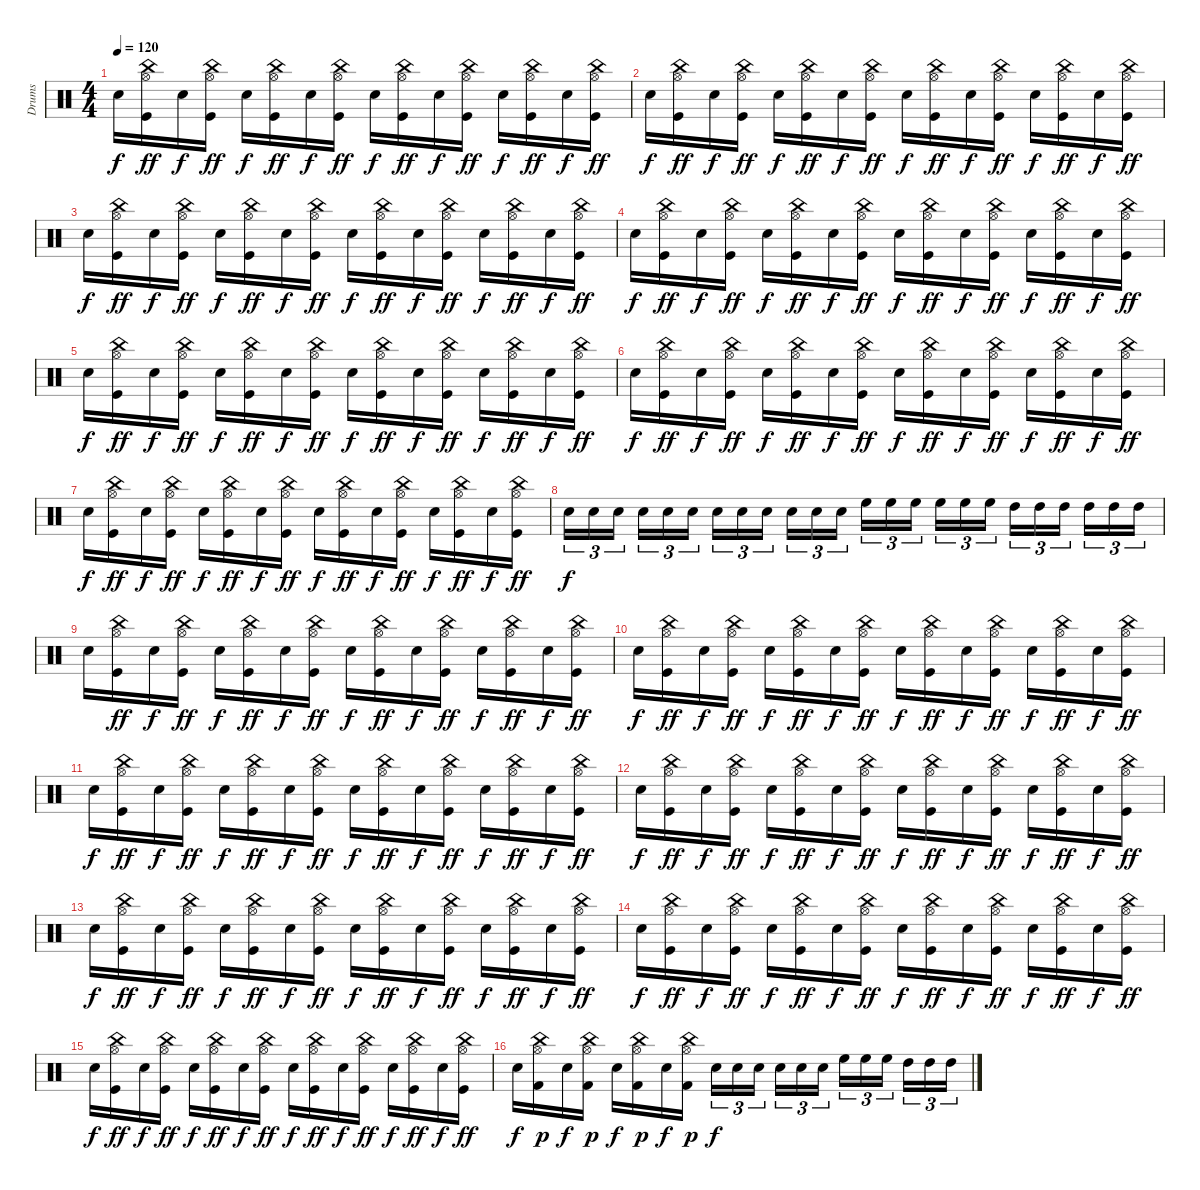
\track ("Drums" "Drums") {instrument percussion}
\staff {score}
\articulation defaults
\ts (4 4)
\tempo 120
\clef neutral
\ks c "Electric Snare (hit)".16{dy f}
("China (hit)" "Hi-Hat (open)" "Kick (hit)").16{dy ff} "Electric Snare (hit)".16{dy f} ("China (hit)" "Hi-Hat (open)" "Kick (hit)").16{dy ff} "Electric Snare (hit)".16{dy f} ("China (hit)" "Hi-Hat (open)" "Kick (hit)").16{dy ff} "Electric Snare (hit)".16{dy f} ("China (hit)" "Hi-Hat (open)" "Kick (hit)").16{dy ff} "Electric Snare (hit)".16{dy f} ("China (hit)" "Hi-Hat (open)" "Kick (hit)").16{dy ff} "Electric Snare (hit)".16{dy f} ("China (hit)" "Hi-Hat (open)" "Kick (hit)").16{dy ff} "Electric Snare (hit)".16{dy f} ("China (hit)" "Hi-Hat (open)" "Kick (hit)").16{dy ff} "Electric Snare (hit)".16{dy f} ("China (hit)" "Hi-Hat (open)" "Kick (hit)").16{dy ff} |
"Electric Snare (hit)".16{dy f} ("China (hit)" "Hi-Hat (open)" "Kick (hit)").16{dy ff} "Electric Snare (hit)".16{dy f} ("China (hit)" "Hi-Hat (open)" "Kick (hit)").16{dy ff} "Electric Snare (hit)".16{dy f} ("China (hit)" "Hi-Hat (open)" "Kick (hit)").16{dy ff} "Electric Snare (hit)".16{dy f} ("China (hit)" "Hi-Hat (open)" "Kick (hit)").16{dy ff} "Electric Snare (hit)".16{dy f} ("China (hit)" "Hi-Hat (open)" "Kick (hit)").16{dy ff} "Electric Snare (hit)".16{dy f} ("China (hit)" "Hi-Hat (open)" "Kick (hit)").16{dy ff} "Electric Snare (hit)".16{dy f} ("China (hit)" "Hi-Hat (open)" "Kick (hit)").16{dy ff} "Electric Snare (hit)".16{dy f} ("China (hit)" "Hi-Hat (open)" "Kick (hit)").16{dy ff} |
"Electric Snare (hit)".16{dy f} ("China (hit)" "Hi-Hat (open)" "Kick (hit)").16{dy ff} "Electric Snare (hit)".16{dy f} ("China (hit)" "Hi-Hat (open)" "Kick (hit)").16{dy ff} "Electric Snare (hit)".16{dy f} ("China (hit)" "Hi-Hat (open)" "Kick (hit)").16{dy ff} "Electric Snare (hit)".16{dy f} ("China (hit)" "Hi-Hat (open)" "Kick (hit)").16{dy ff} "Electric Snare (hit)".16{dy f} ("China (hit)" "Hi-Hat (open)" "Kick (hit)").16{dy ff} "Electric Snare (hit)".16{dy f} ("China (hit)" "Hi-Hat (open)" "Kick (hit)").16{dy ff} "Electric Snare (hit)".16{dy f} ("China (hit)" "Hi-Hat (open)" "Kick (hit)").16{dy ff} "Electric Snare (hit)".16{dy f} ("China (hit)" "Hi-Hat (open)" "Kick (hit)").16{dy ff} |
"Electric Snare (hit)".16{dy f} ("China (hit)" "Hi-Hat (open)" "Kick (hit)").16{dy ff} "Electric Snare (hit)".16{dy f} ("China (hit)" "Hi-Hat (open)" "Kick (hit)").16{dy ff} "Electric Snare (hit)".16{dy f} ("China (hit)" "Hi-Hat (open)" "Kick (hit)").16{dy ff} "Electric Snare (hit)".16{dy f} ("China (hit)" "Hi-Hat (open)" "Kick (hit)").16{dy ff} "Electric Snare (hit)".16{dy f} ("China (hit)" "Hi-Hat (open)" "Kick (hit)").16{dy ff} "Electric Snare (hit)".16{dy f} ("China (hit)" "Hi-Hat (open)" "Kick (hit)").16{dy ff} "Electric Snare (hit)".16{dy f} ("China (hit)" "Hi-Hat (open)" "Kick (hit)").16{dy ff} "Electric Snare (hit)".16{dy f} ("China (hit)" "Hi-Hat (open)" "Kick (hit)").16{dy ff} |
"Electric Snare (hit)".16{dy f} ("China (hit)" "Hi-Hat (open)" "Kick (hit)").16{dy ff} "Electric Snare (hit)".16{dy f} ("China (hit)" "Hi-Hat (open)" "Kick (hit)").16{dy ff} "Electric Snare (hit)".16{dy f} ("China (hit)" "Hi-Hat (open)" "Kick (hit)").16{dy ff} "Electric Snare (hit)".16{dy f} ("China (hit)" "Hi-Hat (open)" "Kick (hit)").16{dy ff} "Electric Snare (hit)".16{dy f} ("China (hit)" "Hi-Hat (open)" "Kick (hit)").16{dy ff} "Electric Snare (hit)".16{dy f} ("China (hit)" "Hi-Hat (open)" "Kick (hit)").16{dy ff} "Electric Snare (hit)".16{dy f} ("China (hit)" "Hi-Hat (open)" "Kick (hit)").16{dy ff} "Electric Snare (hit)".16{dy f} ("China (hit)" "Hi-Hat (open)" "Kick (hit)").16{dy ff} |
"Electric Snare (hit)".16{dy f} ("China (hit)" "Hi-Hat (open)" "Kick (hit)").16{dy ff} "Electric Snare (hit)".16{dy f} ("China (hit)" "Hi-Hat (open)" "Kick (hit)").16{dy ff} "Electric Snare (hit)".16{dy f} ("China (hit)" "Hi-Hat (open)" "Kick (hit)").16{dy ff} "Electric Snare (hit)".16{dy f} ("China (hit)" "Hi-Hat (open)" "Kick (hit)").16{dy ff} "Electric Snare (hit)".16{dy f} ("China (hit)" "Hi-Hat (open)" "Kick (hit)").16{dy ff} "Electric Snare (hit)".16{dy f} ("China (hit)" "Hi-Hat (open)" "Kick (hit)").16{dy ff} "Electric Snare (hit)".16{dy f} ("China (hit)" "Hi-Hat (open)" "Kick (hit)").16{dy ff} "Electric Snare (hit)".16{dy f} ("China (hit)" "Hi-Hat (open)" "Kick (hit)").16{dy ff} |
"Electric Snare (hit)".16{dy f} ("China (hit)" "Hi-Hat (open)" "Kick (hit)").16{dy ff} "Electric Snare (hit)".16{dy f} ("China (hit)" "Hi-Hat (open)" "Kick (hit)").16{dy ff} "Electric Snare (hit)".16{dy f} ("China (hit)" "Hi-Hat (open)" "Kick (hit)").16{dy ff} "Electric Snare (hit)".16{dy f} ("China (hit)" "Hi-Hat (open)" "Kick (hit)").16{dy ff} "Electric Snare (hit)".16{dy f} ("China (hit)" "Hi-Hat (open)" "Kick (hit)").16{dy ff} "Electric Snare (hit)".16{dy f} ("China (hit)" "Hi-Hat (open)" "Kick (hit)").16{dy ff} "Electric Snare (hit)".16{dy f} ("China (hit)" "Hi-Hat (open)" "Kick (hit)").16{dy ff} "Electric Snare (hit)".16{dy f} ("China (hit)" "Hi-Hat (open)" "Kick (hit)").16{dy ff} |
"Electric Snare (hit)".16{tu (3 2) dy f} "Electric Snare (hit)".16{tu (3 2)} "Electric Snare (hit)".16{tu (3 2)} "Electric Snare (hit)".16{tu (3 2)} "Electric Snare (hit)".16{tu (3 2)} "Electric Snare (hit)".16{tu (3 2)} "Electric Snare (hit)".16{tu (3 2)} "Electric Snare (hit)".16{tu (3 2)} "Electric Snare (hit)".16{tu (3 2)} "Electric Snare (hit)".16{tu (3 2)} "Electric Snare (hit)".16{tu (3 2)} "Electric Snare (hit)".16{tu (3 2)} "High Floor Tom (hit)".16{tu (3 2)} "High Floor Tom (hit)".16{tu (3 2)} "High Floor Tom (hit)".16{tu (3 2)} "High Floor Tom (hit)".16{tu (3 2)} "High Floor Tom (hit)".16{tu (3 2)} "High Floor Tom (hit)".16{tu (3 2)} "High Tom (hit)".16{tu (3 2)} "High Tom (hit)".16{tu (3 2)} "High Tom (hit)".16{tu (3 2)} "High Tom (hit)".16{tu (3 2)} "High Tom (hit)".16{tu (3 2)} "High Tom (hit)".16{tu (3 2)} |
"Electric Snare (hit)".16 ("China (hit)" "Hi-Hat (open)" "Kick (hit)").16{dy ff} "Electric Snare (hit)".16{dy f} ("China (hit)" "Hi-Hat (open)" "Kick (hit)").16{dy ff} "Electric Snare (hit)".16{dy f} ("China (hit)" "Hi-Hat (open)" "Kick (hit)").16{dy ff} "Electric Snare (hit)".16{dy f} ("China (hit)" "Hi-Hat (open)" "Kick (hit)").16{dy ff} "Electric Snare (hit)".16{dy f} ("China (hit)" "Hi-Hat (open)" "Kick (hit)").16{dy ff} "Electric Snare (hit)".16{dy f} ("China (hit)" "Hi-Hat (open)" "Kick (hit)").16{dy ff} "Electric Snare (hit)".16{dy f} ("China (hit)" "Hi-Hat (open)" "Kick (hit)").16{dy ff} "Electric Snare (hit)".16{dy f} ("China (hit)" "Hi-Hat (open)" "Kick (hit)").16{dy ff} |
"Electric Snare (hit)".16{dy f} ("China (hit)" "Hi-Hat (open)" "Kick (hit)").16{dy ff} "Electric Snare (hit)".16{dy f} ("China (hit)" "Hi-Hat (open)" "Kick (hit)").16{dy ff} "Electric Snare (hit)".16{dy f} ("China (hit)" "Hi-Hat (open)" "Kick (hit)").16{dy ff} "Electric Snare (hit)".16{dy f} ("China (hit)" "Hi-Hat (open)" "Kick (hit)").16{dy ff} "Electric Snare (hit)".16{dy f} ("China (hit)" "Hi-Hat (open)" "Kick (hit)").16{dy ff} "Electric Snare (hit)".16{dy f} ("China (hit)" "Hi-Hat (open)" "Kick (hit)").16{dy ff} "Electric Snare (hit)".16{dy f} ("China (hit)" "Hi-Hat (open)" "Kick (hit)").16{dy ff} "Electric Snare (hit)".16{dy f} ("China (hit)" "Hi-Hat (open)" "Kick (hit)").16{dy ff} |
"Electric Snare (hit)".16{dy f} ("China (hit)" "Hi-Hat (open)" "Kick (hit)").16{dy ff} "Electric Snare (hit)".16{dy f} ("China (hit)" "Hi-Hat (open)" "Kick (hit)").16{dy ff} "Electric Snare (hit)".16{dy f} ("China (hit)" "Hi-Hat (open)" "Kick (hit)").16{dy ff} "Electric Snare (hit)".16{dy f} ("China (hit)" "Hi-Hat (open)" "Kick (hit)").16{dy ff} "Electric Snare (hit)".16{dy f} ("China (hit)" "Hi-Hat (open)" "Kick (hit)").16{dy ff} "Electric Snare (hit)".16{dy f} ("China (hit)" "Hi-Hat (open)" "Kick (hit)").16{dy ff} "Electric Snare (hit)".16{dy f} ("China (hit)" "Hi-Hat (open)" "Kick (hit)").16{dy ff} "Electric Snare (hit)".16{dy f} ("China (hit)" "Hi-Hat (open)" "Kick (hit)").16{dy ff} |
"Electric Snare (hit)".16{dy f} ("China (hit)" "Hi-Hat (open)" "Kick (hit)").16{dy ff} "Electric Snare (hit)".16{dy f} ("China (hit)" "Hi-Hat (open)" "Kick (hit)").16{dy ff} "Electric Snare (hit)".16{dy f} ("China (hit)" "Hi-Hat (open)" "Kick (hit)").16{dy ff} "Electric Snare (hit)".16{dy f} ("China (hit)" "Hi-Hat (open)" "Kick (hit)").16{dy ff} "Electric Snare (hit)".16{dy f} ("China (hit)" "Hi-Hat (open)" "Kick (hit)").16{dy ff} "Electric Snare (hit)".16{dy f} ("China (hit)" "Hi-Hat (open)" "Kick (hit)").16{dy ff} "Electric Snare (hit)".16{dy f} ("China (hit)" "Hi-Hat (open)" "Kick (hit)").16{dy ff} "Electric Snare (hit)".16{dy f} ("China (hit)" "Hi-Hat (open)" "Kick (hit)").16{dy ff} |
"Electric Snare (hit)".16{dy f} ("China (hit)" "Hi-Hat (open)" "Kick (hit)").16{dy ff} "Electric Snare (hit)".16{dy f} ("China (hit)" "Hi-Hat (open)" "Kick (hit)").16{dy ff} "Electric Snare (hit)".16{dy f} ("China (hit)" "Hi-Hat (open)" "Kick (hit)").16{dy ff} "Electric Snare (hit)".16{dy f} ("China (hit)" "Hi-Hat (open)" "Kick (hit)").16{dy ff} "Electric Snare (hit)".16{dy f} ("China (hit)" "Hi-Hat (open)" "Kick (hit)").16{dy ff} "Electric Snare (hit)".16{dy f} ("China (hit)" "Hi-Hat (open)" "Kick (hit)").16{dy ff} "Electric Snare (hit)".16{dy f} ("China (hit)" "Hi-Hat (open)" "Kick (hit)").16{dy ff} "Electric Snare (hit)".16{dy f} ("China (hit)" "Hi-Hat (open)" "Kick (hit)").16{dy ff} |
"Electric Snare (hit)".16{dy f} ("China (hit)" "Hi-Hat (open)" "Kick (hit)").16{dy ff} "Electric Snare (hit)".16{dy f} ("China (hit)" "Hi-Hat (open)" "Kick (hit)").16{dy ff} "Electric Snare (hit)".16{dy f} ("China (hit)" "Hi-Hat (open)" "Kick (hit)").16{dy ff} "Electric Snare (hit)".16{dy f} ("China (hit)" "Hi-Hat (open)" "Kick (hit)").16{dy ff} "Electric Snare (hit)".16{dy f} ("China (hit)" "Hi-Hat (open)" "Kick (hit)").16{dy ff} "Electric Snare (hit)".16{dy f} ("China (hit)" "Hi-Hat (open)" "Kick (hit)").16{dy ff} "Electric Snare (hit)".16{dy f} ("China (hit)" "Hi-Hat (open)" "Kick (hit)").16{dy ff} "Electric Snare (hit)".16{dy f} ("China (hit)" "Hi-Hat (open)" "Kick (hit)").16{dy ff} |
"Electric Snare (hit)".16{dy f} ("China (hit)" "Hi-Hat (open)" "Kick (hit)").16{dy ff} "Electric Snare (hit)".16{dy f} ("China (hit)" "Hi-Hat (open)" "Kick (hit)").16{dy ff} "Electric Snare (hit)".16{dy f} ("China (hit)" "Hi-Hat (open)" "Kick (hit)").16{dy ff} "Electric Snare (hit)".16{dy f} ("China (hit)" "Hi-Hat (open)" "Kick (hit)").16{dy ff} "Electric Snare (hit)".16{dy f} ("China (hit)" "Hi-Hat (open)" "Kick (hit)").16{dy ff} "Electric Snare (hit)".16{dy f} ("China (hit)" "Hi-Hat (open)" "Kick (hit)").16{dy ff} "Electric Snare (hit)".16{dy f} ("China (hit)" "Hi-Hat (open)" "Kick (hit)").16{dy ff} "Electric Snare (hit)".16{dy f} ("China (hit)" "Hi-Hat (open)" "Kick (hit)").16{dy ff} |
"Electric Snare (hit)".16{dy f} ("Hi-Hat (open)" "China (hit)" "Kick (hit) 2").16{dy p} "Electric Snare (hit)".16{dy f} ("Hi-Hat (open)" "China (hit)" "Kick (hit) 2").16{dy p} "Electric Snare (hit)".16{dy f} ("Hi-Hat (open)" "China (hit)" "Kick (hit) 2").16{dy p} "Electric Snare (hit)".16{dy f} ("Hi-Hat (open)" "China (hit)" "Kick (hit) 2").16{dy p} "Electric Snare (hit)".16{tu (3 2) dy f} "Electric Snare (hit)".16{tu (3 2)} "Electric Snare (hit)".16{tu (3 2)} "Electric Snare (hit)".16{tu (3 2)} "Electric Snare (hit)".16{tu (3 2)} "Electric Snare (hit)".16{tu (3 2)} "High Floor Tom (hit)".16{tu (3 2)} "High Floor Tom (hit)".16{tu (3 2)} "High Floor Tom (hit)".16{tu (3 2)} "High Tom (hit)".16{tu (3 2)} "High Tom (hit)".16{tu (3 2)} "High Tom (hit)".16{tu (3 2)}
